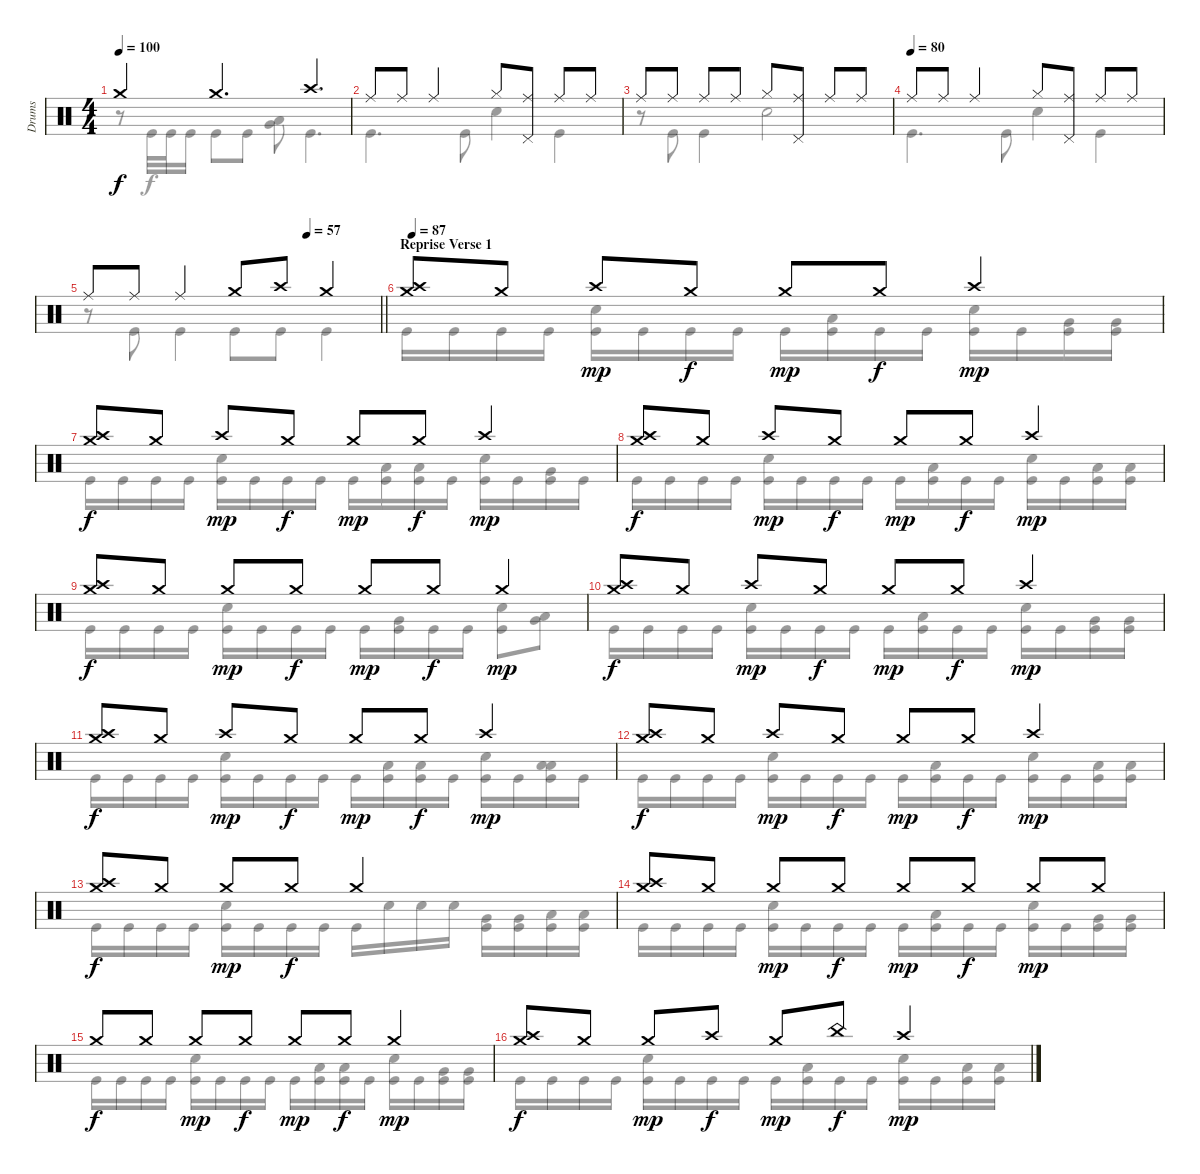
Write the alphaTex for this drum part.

\track ("Drums" "Drums") {instrument percussion}
\staff {score}
\articulation defaults
\voice
\ts (4 4)
\tempo 100
\clef neutral
\ks c "Crash medium (hit)".4{dy f} "Crash medium (hit)".4{d} "Crash high (hit)".4{d}
|
"Ride (middle)".8 "Ride (middle)".8 "Ride (middle)".4 "Hi-Hat (closed)".8 ("Ride (middle)" "Pedal Hi-Hat (hit)").8 "Ride (middle)".8 "Ride (middle)".8 |
"Ride (middle)".8 "Ride (middle)".8 "Ride (middle)".8 "Ride (middle)".8 "Hi-Hat (closed)".8 ("Ride (middle)" "Pedal Hi-Hat (hit)").8 "Ride (middle)".8 "Ride (middle)".8 |
\tempo (80)
"Ride (middle)".8 "Ride (middle)".8 "Ride (middle)".4 "Hi-Hat (closed)".8 ("Ride (middle)" "Pedal Hi-Hat (hit)").8 "Ride (middle)".8 "Ride (middle)".8 |
\tempo (57 0.75)
\barLineRight lightlight "Ride (middle)".8 "Ride (middle)".8 "Ride (middle)".4 "Crash medium (hit)".8 "Crash high (hit)".8 "Crash medium (hit)".4
|
\section ("" "Reprise Verse 1")
\tempo 87
("Crash medium (hit)" "Crash high (hit)").8 "Crash medium (hit)".8 "Crash high (hit)".8{dy mp} "Crash medium (hit)".8{dy f} "Crash medium (hit)".8{dy mp} "Crash medium (hit)".8{dy f} "Crash high (hit)".4{dy mp} |
("Crash medium (hit)" "Crash high (hit)").8{dy f} "Crash medium (hit)".8 "Crash high (hit)".8{dy mp} "Crash medium (hit)".8{dy f} "Crash medium (hit)".8{dy mp} "Crash medium (hit)".8{dy f} "Crash high (hit)".4{dy mp} |
("Crash medium (hit)" "Crash high (hit)").8{dy f} "Crash medium (hit)".8 "Crash high (hit)".8{dy mp} "Crash medium (hit)".8{dy f} "Crash medium (hit)".8{dy mp} "Crash medium (hit)".8{dy f} "Crash high (hit)".4{dy mp} |
("Crash medium (hit)" "Crash high (hit)").8{dy f} "Crash medium (hit)".8 "Crash medium (hit)".8{dy mp} "Crash medium (hit)".8{dy f} "Crash medium (hit)".8{dy mp} "Crash medium (hit)".8{dy f} "Crash medium (hit)".4{dy mp} |
("Crash medium (hit)" "Crash high (hit)").8{dy f} "Crash medium (hit)".8 "Crash high (hit)".8{dy mp} "Crash medium (hit)".8{dy f} "Crash medium (hit)".8{dy mp} "Crash medium (hit)".8{dy f} "Crash high (hit)".4{dy mp} |
("Crash medium (hit)" "Crash high (hit)").8{dy f} "Crash medium (hit)".8 "Crash high (hit)".8{dy mp} "Crash medium (hit)".8{dy f} "Crash medium (hit)".8{dy mp} "Crash medium (hit)".8{dy f} "Crash high (hit)".4{dy mp} |
("Crash medium (hit)" "Crash high (hit)").8{dy f} "Crash medium (hit)".8 "Crash high (hit)".8{dy mp} "Crash medium (hit)".8{dy f} "Crash medium (hit)".8{dy mp} "Crash medium (hit)".8{dy f} "Crash high (hit)".4{dy mp} |
("Crash medium (hit)" "Crash high (hit)").8{dy f} "Crash medium (hit)".8 "Crash medium (hit)".8{dy mp} "Crash medium (hit)".8{dy f} "Crash medium (hit)".2 |
("Crash medium (hit)" "Crash high (hit)").8 "Crash medium (hit)".8 "Crash medium (hit)".8{dy mp} "Crash medium (hit)".8{dy f} "Crash medium (hit)".8{dy mp} "Crash medium (hit)".8{dy f} "Crash medium (hit)".8{dy mp} "Crash medium (hit)".8 |
"Crash medium (hit)".8{dy f} "Crash medium (hit)".8 "Crash medium (hit)".8{dy mp} "Crash medium (hit)".8{dy f} "Crash medium (hit)".8{dy mp} "Crash medium (hit)".8{dy f} "Crash medium (hit)".4{dy mp} |
("Crash medium (hit)" "Crash high (hit)").8{dy f} "Crash medium (hit)".8 "Crash medium (hit)".8{dy mp} "Crash high (hit)".8{dy f} "Crash medium (hit)".8{dy mp} "China (hit)".8{dy f} "Crash high (hit)".4{dy mp}
\voice
\clef neutral
\ottava regular
\simile none
\ks c
r.8{dy f} "Kick (hit)".32 "Kick (hit)".32 "Kick (hit)".16 "Kick (hit)".8 "Kick (hit)".8 ("Very Low Tom (hit)" "Low Floor Tom (hit)").8 "Kick (hit)".4{d} |
"Kick (hit)".4{d} "Kick (hit)".8 "Snare (hit) 2".4 "Kick (hit)".4 |
r.8 "Kick (hit)".8 "Kick (hit)".4 "Snare (hit) 2".2 |
"Kick (hit)".4{d} "Kick (hit)".8 "Snare (hit) 2".4 "Kick (hit)".4 |
\barLineRight lightlight
r.8 "Kick (hit)".8 "Kick (hit)".4 "Kick (hit)".8 "Kick (hit)".8 "Kick (hit)".4 |
"Kick (hit)".16 "Kick (hit)".16 "Kick (hit)".16 "Kick (hit)".16 ("Snare (hit) 2" "Kick (hit)").16 "Kick (hit)".16 "Kick (hit)".16 "Kick (hit)".16 "Kick (hit)".16 ("Low Tom (hit)" "Kick (hit)").16 "Kick (hit)".16 "Kick (hit)".16 ("Snare (hit) 2" "Kick (hit)").16 "Kick (hit)".16 ("Very Low Tom (hit)" "Kick (hit)").16 ("Very Low Tom (hit)" "Kick (hit)").16 |
"Kick (hit)".16 "Kick (hit)".16 "Kick (hit)".16 "Kick (hit)".16 ("Snare (hit) 2" "Kick (hit)").16 "Kick (hit)".16 "Kick (hit)".16 "Kick (hit)".16 "Kick (hit)".16 ("Low Tom (hit)" "Kick (hit)").16 ("Low Tom (hit)" "Kick (hit)").16 "Kick (hit)".16 ("Snare (hit) 2" "Kick (hit)").16 "Kick (hit)".16 ("Very Low Tom (hit)" "Kick (hit)").16 "Kick (hit)".16 |
"Kick (hit)".16 "Kick (hit)".16 "Kick (hit)".16 "Kick (hit)".16 ("Snare (hit) 2" "Kick (hit)").16 "Kick (hit)".16 "Kick (hit)".16 "Kick (hit)".16 "Kick (hit)".16 ("Low Floor Tom (hit)" "Kick (hit)").16 "Kick (hit)".16 "Kick (hit)".16 ("Snare (hit) 2" "Kick (hit)").16 "Kick (hit)".16 ("Low Floor Tom (hit)" "Kick (hit)").16 ("Low Floor Tom (hit)" "Kick (hit)").16 |
"Kick (hit)".16 "Kick (hit)".16 "Kick (hit)".16 "Kick (hit)".16 ("Snare (hit) 2" "Kick (hit)").16 "Kick (hit)".16 "Kick (hit)".16 "Kick (hit)".16 "Kick (hit)".16 ("Very Low Tom (hit)" "Kick (hit)").16 "Kick (hit)".16 "Kick (hit)".16 ("Snare (hit) 2" "Kick (hit)").8 ("Very Low Tom (hit)" "Low Floor Tom (hit)").8 |
"Kick (hit)".16 "Kick (hit)".16 "Kick (hit)".16 "Kick (hit)".16 ("Snare (hit) 2" "Kick (hit)").16 "Kick (hit)".16 "Kick (hit)".16 "Kick (hit)".16 "Kick (hit)".16 ("Low Tom (hit)" "Kick (hit)").16 "Kick (hit)".16 "Kick (hit)".16 ("Snare (hit) 2" "Kick (hit)").16 "Kick (hit)".16 ("Very Low Tom (hit)" "Kick (hit)").16 ("Very Low Tom (hit)" "Kick (hit)").16 |
"Kick (hit)".16 "Kick (hit)".16 "Kick (hit)".16 "Kick (hit)".16 ("Snare (hit) 2" "Kick (hit)").16 "Kick (hit)".16 "Kick (hit)".16 "Kick (hit)".16 "Kick (hit)".16 ("Low Tom (hit)" "Kick (hit)").16 ("Low Tom (hit)" "Kick (hit)").16 "Kick (hit)".16 ("Snare (hit) 2" "Kick (hit)").16 "Kick (hit)".16 ("Low Tom (hit)" "Low Floor Tom (hit)" "Kick (hit)").16 "Kick (hit)".16 |
"Kick (hit)".16 "Kick (hit)".16 "Kick (hit)".16 "Kick (hit)".16 ("Snare (hit) 2" "Kick (hit)").16 "Kick (hit)".16 "Kick (hit)".16 "Kick (hit)".16 "Kick (hit)".16 ("Low Floor Tom (hit)" "Kick (hit)").16 "Kick (hit)".16 "Kick (hit)".16 ("Snare (hit) 2" "Kick (hit)").16 "Kick (hit)".16 ("Low Floor Tom (hit)" "Kick (hit)").16 ("Low Floor Tom (hit)" "Kick (hit)").16 |
"Kick (hit)".16 "Kick (hit)".16 "Kick (hit)".16 "Kick (hit)".16 ("Snare (hit) 2" "Kick (hit)").16 "Kick (hit)".16 "Kick (hit)".16 "Kick (hit)".16 "Kick (hit)".16 "Snare (hit) 2".16 "Snare (hit) 2".16 "Snare (hit) 2".16 ("Very Low Tom (hit)" "Kick (hit)").16 ("Very Low Tom (hit)" "Kick (hit)").16 ("Low Floor Tom (hit)" "Kick (hit)").16 ("Low Floor Tom (hit)" "Kick (hit)").16 |
"Kick (hit)".16 "Kick (hit)".16 "Kick (hit)".16 "Kick (hit)".16 ("Snare (hit) 2" "Kick (hit)").16 "Kick (hit)".16 "Kick (hit)".16 "Kick (hit)".16 "Kick (hit)".16 ("Low Tom (hit)" "Kick (hit)").16 "Kick (hit)".16 "Kick (hit)".16 ("Snare (hit) 2" "Kick (hit)").16 "Kick (hit)".16 ("Very Low Tom (hit)" "Kick (hit)").16 ("Very Low Tom (hit)" "Kick (hit)").16 |
"Kick (hit)".16 "Kick (hit)".16 "Kick (hit)".16 "Kick (hit)".16 ("Snare (hit) 2" "Kick (hit)").16 "Kick (hit)".16 "Kick (hit)".16 "Kick (hit)".16 "Kick (hit)".16 ("Low Tom (hit)" "Kick (hit)").16 ("Low Tom (hit)" "Kick (hit)").16 "Kick (hit)".16 ("Snare (hit) 2" "Kick (hit)").16 "Kick (hit)".16 ("Very Low Tom (hit)" "Kick (hit)").16 ("Very Low Tom (hit)" "Kick (hit)").16 |
"Kick (hit)".16 "Kick (hit)".16 "Kick (hit)".16 "Kick (hit)".16 ("Snare (hit) 2" "Kick (hit)").16 "Kick (hit)".16 "Kick (hit)".16 "Kick (hit)".16 "Kick (hit)".16 ("Low Floor Tom (hit)" "Kick (hit)").16 "Kick (hit)".16 "Kick (hit)".16 ("Snare (hit) 2" "Kick (hit)").16 "Kick (hit)".16 ("Low Floor Tom (hit)" "Kick (hit)").16 ("Low Floor Tom (hit)" "Kick (hit)").16
